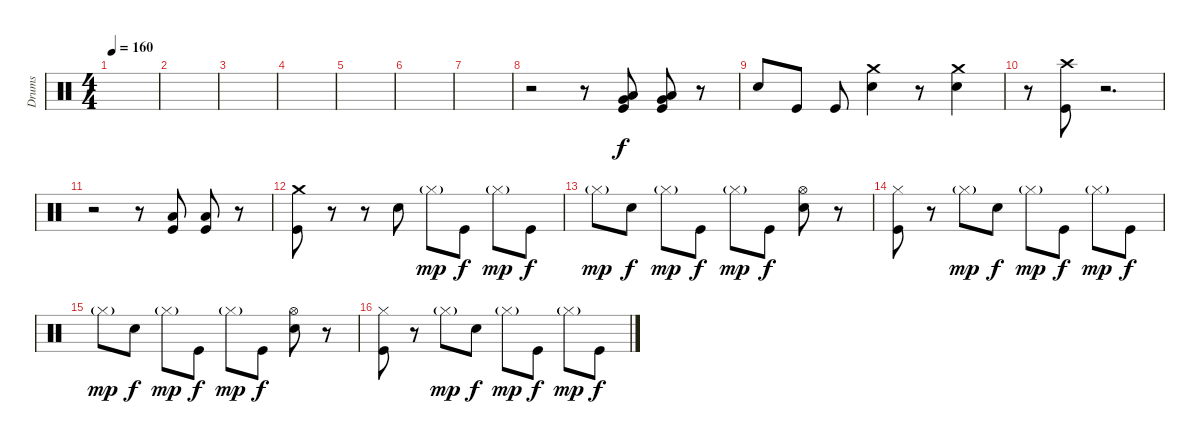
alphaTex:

\track ("Drums" "Drums") {instrument percussion}
\staff {score}
\articulation defaults
\ts (4 4)
\tempo 160
\clef neutral
\ks c
|
|
|
|
|
|
|
r.2 r.8 ("Very Low Tom (hit)" "Low Floor Tom (hit)" "Kick (hit)").8{dy f} ("Very Low Tom (hit)" "Low Floor Tom (hit)" "Kick (hit)").8 r.8 |
"Electric Snare (hit)".8 "Kick (hit)".8 "Kick (hit)".8 ("Crash medium (hit)" "Electric Snare (hit)").4 r.8 ("Crash medium (hit)" "Electric Snare (hit)").4 |
r.8 ("Crash high (hit)" "Kick (hit)").8 r.2{d} |
r.2 r.8 ("Low Tom (hit)" "Kick (hit)").8 ("Low Tom (hit)" "Kick (hit)").8 r.8 |
("Crash medium (hit)" "Kick (hit)").8 r.8 r.8 "Electric Snare (hit)".8 "Hi-Hat (closed)"{g}.8{dy mp} "Kick (hit)".8{dy f} "Hi-Hat (closed)"{g}.8{dy mp} "Kick (hit)".8{dy f} |
"Hi-Hat (closed)"{g}.8{dy mp} "Electric Snare (hit)".8{dy f} "Hi-Hat (closed)"{g}.8{dy mp} "Kick (hit)".8{dy f} "Hi-Hat (closed)"{g}.8{dy mp} "Kick (hit)".8{dy f} ("Hi-Hat (open)" "Electric Snare (hit)").8 r.8 |
("Hi-Hat (closed)" "Kick (hit)").8 r.8 "Hi-Hat (closed)"{g}.8{dy mp} "Electric Snare (hit)".8{dy f} "Hi-Hat (closed)"{g}.8{dy mp} "Kick (hit)".8{dy f} "Hi-Hat (closed)"{g}.8{dy mp} "Kick (hit)".8{dy f} |
"Hi-Hat (closed)"{g}.8{dy mp} "Electric Snare (hit)".8{dy f} "Hi-Hat (closed)"{g}.8{dy mp} "Kick (hit)".8{dy f} "Hi-Hat (closed)"{g}.8{dy mp} "Kick (hit)".8{dy f} ("Hi-Hat (open)" "Electric Snare (hit)").8 r.8 |
("Hi-Hat (closed)" "Kick (hit)").8 r.8 "Hi-Hat (closed)"{g}.8{dy mp} "Electric Snare (hit)".8{dy f} "Hi-Hat (closed)"{g}.8{dy mp} "Kick (hit)".8{dy f} "Hi-Hat (closed)"{g}.8{dy mp} "Kick (hit)".8{dy f}
